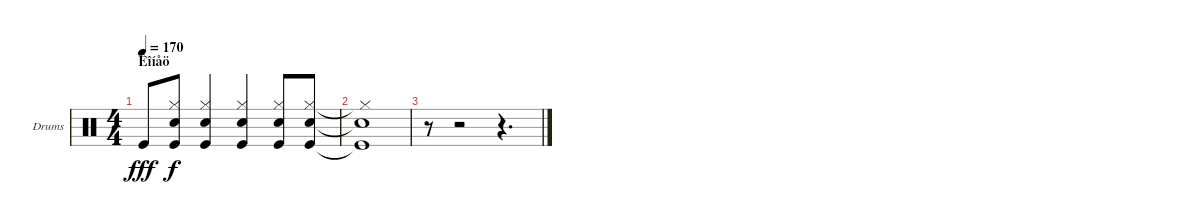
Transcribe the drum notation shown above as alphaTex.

\bracketExtendMode groupsimilarinstruments
\firstSystemTrackNameOrientation horizontal
\otherSystemsTrackNameOrientation horizontal
\track ("Drumkit" "Drums") {instrument percussion}
\staff {score}
\articulation defaults
\ts (4 4)
\section ("" "Êîíåö")
\tempo 170
\clef neutral
\ks c "Kick (hit)".8{dy fff}
("Hi-Hat (closed)" "Snare (hit) 2" "Kick (hit)").8{dy f} ("Hi-Hat (closed)" "Snare (hit) 2" "Kick (hit)").4 ("Hi-Hat (closed)" "Snare (hit) 2" "Kick (hit)").4 ("Hi-Hat (closed)" "Snare (hit) 2" "Kick (hit)").8 ("Hi-Hat (closed)" "Snare (hit) 2" "Kick (hit)").8 |
("Hi-Hat (closed)"{t} "Snare (hit) 2"{t} "Kick (hit)"{t}).1 |
r.8 r.2 r.4{d}
